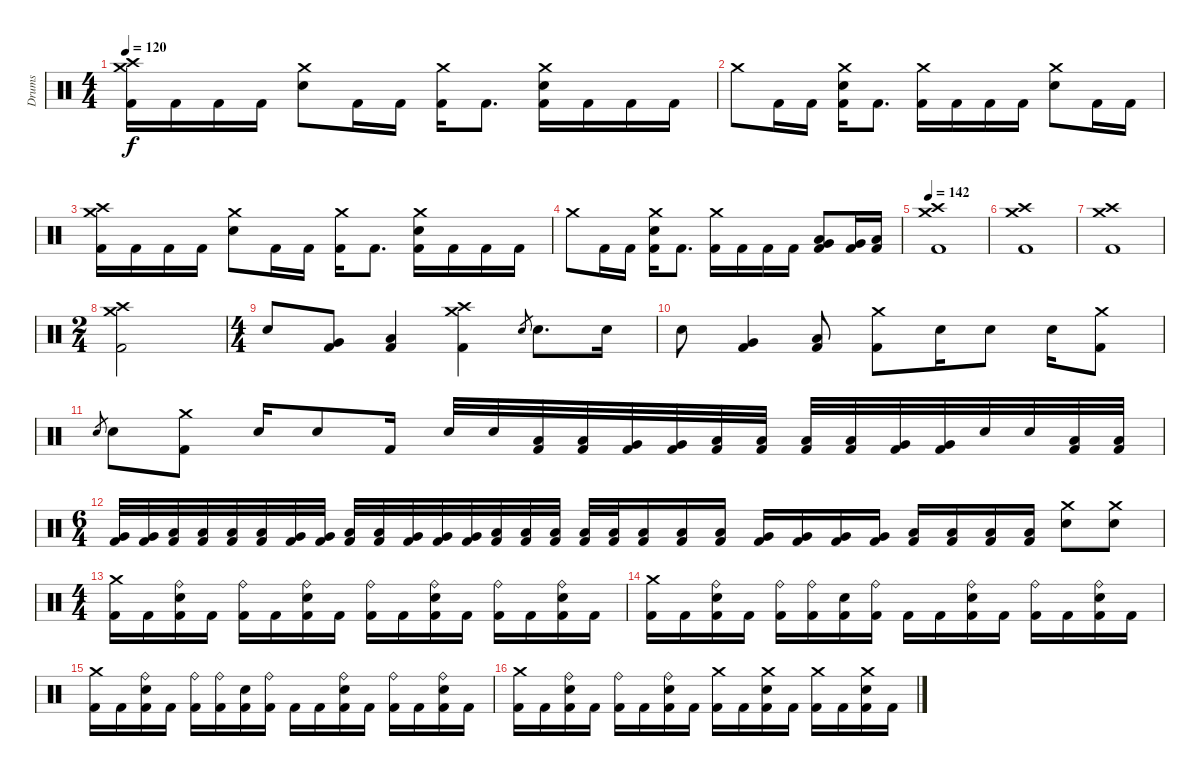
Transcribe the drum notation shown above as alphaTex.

\track ("Drums" "Drums") {instrument percussion}
\staff {score}
\articulation defaults
\ts (4 4)
\tempo 120
\clef neutral
\ks c
("Crash medium (hit)" "Crash high (hit)" "Kick (hit) 2").16{dy f} "Kick (hit) 2".16 "Kick (hit) 2".16 "Kick (hit) 2".16 ("Crash medium (hit)" "Electric Snare (hit)").8 "Kick (hit) 2".16 "Kick (hit) 2".16 ("Crash medium (hit)" "Kick (hit) 2").16 "Kick (hit) 2".8{d} ("Crash medium (hit)" "Electric Snare (hit)" "Kick (hit) 2").16 "Kick (hit) 2".16 "Kick (hit) 2".16 "Kick (hit) 2".16 |
"Crash medium (hit)".8 "Kick (hit) 2".16 "Kick (hit) 2".16 ("Crash medium (hit)" "Electric Snare (hit)" "Kick (hit) 2").16 "Kick (hit) 2".8{d} ("Crash medium (hit)" "Kick (hit) 2").16 "Kick (hit) 2".16 "Kick (hit) 2".16 "Kick (hit) 2".16 ("Crash medium (hit)" "Electric Snare (hit)").8 "Kick (hit) 2".16 "Kick (hit) 2".16 |
("Crash medium (hit)" "Crash high (hit)" "Kick (hit) 2").16 "Kick (hit) 2".16 "Kick (hit) 2".16 "Kick (hit) 2".16 ("Crash medium (hit)" "Electric Snare (hit)").8 "Kick (hit) 2".16 "Kick (hit) 2".16 ("Crash medium (hit)" "Kick (hit) 2").16 "Kick (hit) 2".8{d} ("Crash medium (hit)" "Electric Snare (hit)" "Kick (hit) 2").16 "Kick (hit) 2".16 "Kick (hit) 2".16 "Kick (hit) 2".16 |
"Crash medium (hit)".8 "Kick (hit) 2".16 "Kick (hit) 2".16 ("Crash medium (hit)" "Electric Snare (hit)" "Kick (hit) 2").16 "Kick (hit) 2".8{d} ("Crash medium (hit)" "Kick (hit) 2").16 "Kick (hit) 2".16 "Kick (hit) 2".16 "Kick (hit) 2".16 ("Low Floor Tom (hit)" "Very Low Tom (hit)" "Kick (hit) 2").8 ("Very Low Tom (hit)" "Kick (hit) 2").16 ("Low Floor Tom (hit)" "Kick (hit) 2").16 |
\tempo 142
("Crash medium (hit)" "Crash high (hit)" "Kick (hit) 2").1 |
("Crash medium (hit)" "Crash high (hit)" "Kick (hit) 2").1 |
("Crash medium (hit)" "Crash high (hit)" "Kick (hit) 2").1 |
\ts (2 4)
("Crash medium (hit)" "Crash high (hit)" "Kick (hit) 2").2 |
\ts (4 4)
"Electric Snare (hit)".8 ("Very Low Tom (hit)" "Kick (hit) 2").8 ("Low Floor Tom (hit)" "Kick (hit) 2").4 ("Crash medium (hit)" "Crash high (hit)" "Kick (hit) 2").4 "Electric Snare (hit)".8{gr} "Electric Snare (hit)".8{d} "Electric Snare (hit)".16 |
"Electric Snare (hit)".8 ("Very Low Tom (hit)" "Kick (hit) 2").4 ("Low Floor Tom (hit)" "Kick (hit) 2").8 ("Crash medium (hit)" "Kick (hit) 2").8 "Electric Snare (hit)".16 "Electric Snare (hit)".8 "Electric Snare (hit)".16 ("Crash medium (hit)" "Kick (hit) 2").8 |
"Electric Snare (hit)".8{gr} "Electric Snare (hit)".8 ("Crash medium (hit)" "Kick (hit) 2").8 "Electric Snare (hit)".16 "Electric Snare (hit)".8 "Kick (hit) 2".16 "Electric Snare (hit)".32 "Electric Snare (hit)".32 ("Low Tom (hit)" "Kick (hit) 2").32 ("Low Tom (hit)" "Kick (hit) 2").32 ("Very Low Tom (hit)" "Kick (hit) 2").32 ("Very Low Tom (hit)" "Kick (hit) 2").32 ("Low Floor Tom (hit)" "Kick (hit) 2").32 ("Low Floor Tom (hit)" "Kick (hit) 2").32 ("Low Tom (hit)" "Kick (hit) 2").32 ("Low Tom (hit)" "Kick (hit) 2").32 ("Very Low Tom (hit)" "Kick (hit) 2").32 ("Very Low Tom (hit)" "Kick (hit) 2").32 "Electric Snare (hit)".32 "Electric Snare (hit)".32 ("Low Tom (hit)" "Kick (hit) 2").32 ("Low Tom (hit)" "Kick (hit) 2").32 |
\ts (6 4)
("Very Low Tom (hit)" "Kick (hit) 2").32 ("Very Low Tom (hit)" "Kick (hit) 2").32 ("Low Floor Tom (hit)" "Kick (hit) 2").32 ("Low Floor Tom (hit)" "Kick (hit) 2").32 ("Low Tom (hit)" "Kick (hit) 2").32 ("Low Tom (hit)" "Kick (hit) 2").32 ("Very Low Tom (hit)" "Kick (hit) 2").32 ("Very Low Tom (hit)" "Kick (hit) 2").32 ("Low Floor Tom (hit)" "Kick (hit) 2").32 ("Low Floor Tom (hit)" "Kick (hit) 2").32 ("Very Low Tom (hit)" "Kick (hit) 2").32 ("Very Low Tom (hit)" "Kick (hit) 2").32 ("Very Low Tom (hit)" "Kick (hit) 2").32 ("Low Floor Tom (hit)" "Kick (hit) 2").32 ("Low Floor Tom (hit)" "Kick (hit) 2").32 ("Low Floor Tom (hit)" "Kick (hit) 2").32 ("Low Tom (hit)" "Kick (hit) 2").32 ("Low Tom (hit)" "Kick (hit) 2").32 ("Low Tom (hit)" "Kick (hit) 2").16 ("Low Tom (hit)" "Kick (hit) 2").16 ("Low Tom (hit)" "Kick (hit) 2").16 ("Very Low Tom (hit)" "Kick (hit) 2").16 ("Very Low Tom (hit)" "Kick (hit) 2").16 ("Very Low Tom (hit)" "Kick (hit) 2").16 ("Very Low Tom (hit)" "Kick (hit) 2").16 ("Low Floor Tom (hit)" "Kick (hit) 2").16 ("Low Floor Tom (hit)" "Kick (hit) 2").16 ("Low Floor Tom (hit)" "Kick (hit) 2").16 ("Low Floor Tom (hit)" "Kick (hit) 2").16 ("Crash medium (hit)" "Electric Snare (hit)").8 ("Crash medium (hit)" "Electric Snare (hit)").8 |
\ts (4 4)
("Crash medium (hit)" "Kick (hit) 2").16 "Kick (hit) 2".16 ("Ride (bell)" "Electric Snare (hit)" "Kick (hit) 2").16 "Kick (hit) 2".16 ("Ride (bell)" "Kick (hit) 2").16 "Kick (hit) 2".16 ("Ride (bell)" "Electric Snare (hit)" "Kick (hit) 2").16 "Kick (hit) 2".16 ("Ride (bell)" "Kick (hit) 2").16 "Kick (hit) 2".16 ("Ride (bell)" "Electric Snare (hit)" "Kick (hit) 2").16 "Kick (hit) 2".16 ("Ride (bell)" "Kick (hit) 2").16 "Kick (hit) 2".16 ("Ride (bell)" "Electric Snare (hit)" "Kick (hit) 2").16 "Kick (hit) 2".16 |
("Crash medium (hit)" "Kick (hit) 2").16 "Kick (hit) 2".16 ("Ride (bell)" "Electric Snare (hit)" "Kick (hit) 2").16 "Kick (hit) 2".16 ("Ride (bell)" "Kick (hit) 2").16 ("Ride (bell)" "Kick (hit) 2").16 ("Electric Snare (hit)" "Kick (hit) 2").16 ("Ride (bell)" "Kick (hit) 2").16 "Kick (hit) 2".16 "Kick (hit) 2".16 ("Ride (bell)" "Electric Snare (hit)" "Kick (hit) 2").16 "Kick (hit) 2".16 ("Ride (bell)" "Kick (hit) 2").16 "Kick (hit) 2".16 ("Ride (bell)" "Electric Snare (hit)" "Kick (hit) 2").16 "Kick (hit) 2".16 |
("Crash medium (hit)" "Kick (hit) 2").16 "Kick (hit) 2".16 ("Ride (bell)" "Electric Snare (hit)" "Kick (hit) 2").16 "Kick (hit) 2".16 ("Ride (bell)" "Kick (hit) 2").16 ("Ride (bell)" "Kick (hit) 2").16 ("Electric Snare (hit)" "Kick (hit) 2").16 ("Ride (bell)" "Kick (hit) 2").16 "Kick (hit) 2".16 "Kick (hit) 2".16 ("Ride (bell)" "Electric Snare (hit)" "Kick (hit) 2").16 "Kick (hit) 2".16 ("Ride (bell)" "Kick (hit) 2").16 "Kick (hit) 2".16 ("Ride (bell)" "Electric Snare (hit)" "Kick (hit) 2").16 "Kick (hit) 2".16 |
("Crash medium (hit)" "Kick (hit) 2").16 "Kick (hit) 2".16 ("Ride (bell)" "Electric Snare (hit)" "Kick (hit) 2").16 "Kick (hit) 2".16 ("Ride (bell)" "Kick (hit) 2").16 "Kick (hit) 2".16 ("Ride (bell)" "Electric Snare (hit)" "Kick (hit) 2").16 "Kick (hit) 2".16 ("Crash medium (hit)" "Kick (hit) 2").16 "Kick (hit) 2".16 ("Crash medium (hit)" "Electric Snare (hit)" "Kick (hit) 2").16 "Kick (hit) 2".16 ("Crash medium (hit)" "Kick (hit) 2").16 "Kick (hit) 2".16 ("Crash medium (hit)" "Electric Snare (hit)" "Kick (hit) 2").16 "Kick (hit) 2".16
